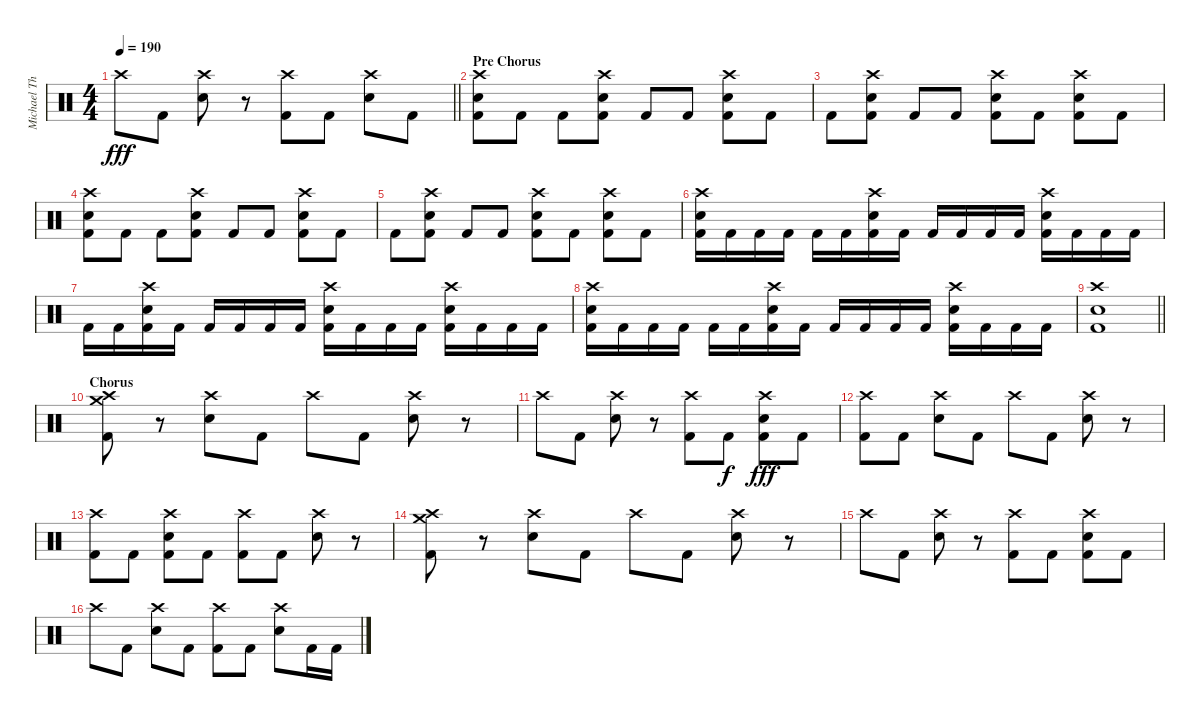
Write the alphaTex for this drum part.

\track ("Michael Thomas Жжёт!" "Michael Th") {instrument percussion}
\staff {score}
\articulation defaults
\ts (4 4)
\tempo 190
\clef neutral
\barLineRight lightlight
\ks c "Crash high (hit)".8{dy fff} "Kick (hit) 2".8
("Crash high (hit)" "Electric Snare (hit)").8 r.8 ("Crash high (hit)" "Kick (hit) 2").8 "Kick (hit) 2".8 ("Crash high (hit)" "Electric Snare (hit)").8 "Kick (hit) 2".8 |
\section ("" "Pre Chorus")
("Crash high (hit)" "Electric Snare (hit)" "Kick (hit) 2").8 "Kick (hit) 2".8 "Kick (hit) 2".8 ("Crash high (hit)" "Electric Snare (hit)" "Kick (hit) 2").8 "Kick (hit) 2".8 "Kick (hit) 2".8 ("Crash high (hit)" "Electric Snare (hit)" "Kick (hit) 2").8 "Kick (hit) 2".8 |
"Kick (hit) 2".8 ("Crash high (hit)" "Electric Snare (hit)" "Kick (hit) 2").8 "Kick (hit) 2".8 "Kick (hit) 2".8 ("Crash high (hit)" "Electric Snare (hit)" "Kick (hit) 2").8 "Kick (hit) 2".8 ("Crash high (hit)" "Electric Snare (hit)" "Kick (hit) 2").8 "Kick (hit) 2".8 |
("Crash high (hit)" "Electric Snare (hit)" "Kick (hit) 2").8 "Kick (hit) 2".8 "Kick (hit) 2".8 ("Crash high (hit)" "Electric Snare (hit)" "Kick (hit) 2").8 "Kick (hit) 2".8 "Kick (hit) 2".8 ("Crash high (hit)" "Electric Snare (hit)" "Kick (hit) 2").8 "Kick (hit) 2".8 |
"Kick (hit) 2".8 ("Crash high (hit)" "Electric Snare (hit)" "Kick (hit) 2").8 "Kick (hit) 2".8 "Kick (hit) 2".8 ("Crash high (hit)" "Electric Snare (hit)" "Kick (hit) 2").8 "Kick (hit) 2".8 ("Crash high (hit)" "Electric Snare (hit)" "Kick (hit) 2").8 "Kick (hit) 2".8 |
("Crash high (hit)" "Electric Snare (hit)" "Kick (hit) 2").16 "Kick (hit) 2".16 "Kick (hit) 2".16 "Kick (hit) 2".16 "Kick (hit) 2".16 "Kick (hit) 2".16 ("Crash high (hit)" "Electric Snare (hit)" "Kick (hit) 2").16 "Kick (hit) 2".16 "Kick (hit) 2".16 "Kick (hit) 2".16 "Kick (hit) 2".16 "Kick (hit) 2".16 ("Crash high (hit)" "Electric Snare (hit)" "Kick (hit) 2").16 "Kick (hit) 2".16 "Kick (hit) 2".16 "Kick (hit) 2".16 |
"Kick (hit) 2".16 "Kick (hit) 2".16 ("Crash high (hit)" "Electric Snare (hit)" "Kick (hit) 2").16 "Kick (hit) 2".16 "Kick (hit) 2".16 "Kick (hit) 2".16 "Kick (hit) 2".16 "Kick (hit) 2".16 ("Crash high (hit)" "Electric Snare (hit)" "Kick (hit) 2").16 "Kick (hit) 2".16 "Kick (hit) 2".16 "Kick (hit) 2".16 ("Crash high (hit)" "Electric Snare (hit)" "Kick (hit) 2").16 "Kick (hit) 2".16 "Kick (hit) 2".16 "Kick (hit) 2".16 |
("Crash high (hit)" "Electric Snare (hit)" "Kick (hit) 2").16 "Kick (hit) 2".16 "Kick (hit) 2".16 "Kick (hit) 2".16 "Kick (hit) 2".16 "Kick (hit) 2".16 ("Crash high (hit)" "Electric Snare (hit)" "Kick (hit) 2").16 "Kick (hit) 2".16 "Kick (hit) 2".16 "Kick (hit) 2".16 "Kick (hit) 2".16 "Kick (hit) 2".16 ("Crash high (hit)" "Electric Snare (hit)" "Kick (hit) 2").16 "Kick (hit) 2".16 "Kick (hit) 2".16 "Kick (hit) 2".16 |
\barLineRight lightlight
("Crash high (hit)" "Electric Snare (hit)" "Kick (hit) 2").1 |
\section ("" "Chorus")
("Crash high (hit)" "Crash medium (hit)" "Kick (hit) 2").8 r.8 ("Crash high (hit)" "Electric Snare (hit)").8 "Kick (hit) 2".8 "Crash high (hit)".8 "Kick (hit) 2".8 ("Crash high (hit)" "Electric Snare (hit)").8 r.8 |
"Crash high (hit)".8 "Kick (hit) 2".8 ("Crash high (hit)" "Electric Snare (hit)").8 r.8 ("Crash high (hit)" "Kick (hit) 2").8 "Kick (hit) 2".8{dy f} ("Crash high (hit)" "Electric Snare (hit)" "Kick (hit) 2").8{dy fff} "Kick (hit) 2".8 |
("Crash high (hit)" "Kick (hit) 2").8 "Kick (hit) 2".8 ("Crash high (hit)" "Electric Snare (hit)").8 "Kick (hit) 2".8 "Crash high (hit)".8 "Kick (hit) 2".8 ("Crash high (hit)" "Electric Snare (hit)").8 r.8 |
("Crash high (hit)" "Kick (hit) 2").8 "Kick (hit) 2".8 ("Crash high (hit)" "Electric Snare (hit)" "Kick (hit) 2").8 "Kick (hit) 2".8 ("Crash high (hit)" "Kick (hit) 2").8 "Kick (hit) 2".8 ("Crash high (hit)" "Electric Snare (hit)").8 r.8 |
("Crash high (hit)" "Crash medium (hit)" "Kick (hit) 2").8 r.8 ("Crash high (hit)" "Electric Snare (hit)").8 "Kick (hit) 2".8 "Crash high (hit)".8 "Kick (hit) 2".8 ("Crash high (hit)" "Electric Snare (hit)").8 r.8 |
"Crash high (hit)".8 "Kick (hit) 2".8 ("Crash high (hit)" "Electric Snare (hit)").8 r.8 ("Crash high (hit)" "Kick (hit) 2").8 "Kick (hit) 2".8 ("Crash high (hit)" "Electric Snare (hit)" "Kick (hit) 2").8 "Kick (hit) 2".8 |
"Crash high (hit)".8 "Kick (hit) 2".8 ("Crash high (hit)" "Electric Snare (hit)").8 "Kick (hit) 2".8 ("Crash high (hit)" "Kick (hit) 2").8 "Kick (hit) 2".8 ("Crash high (hit)" "Electric Snare (hit)").8 "Kick (hit) 2".16 "Kick (hit) 2".16
